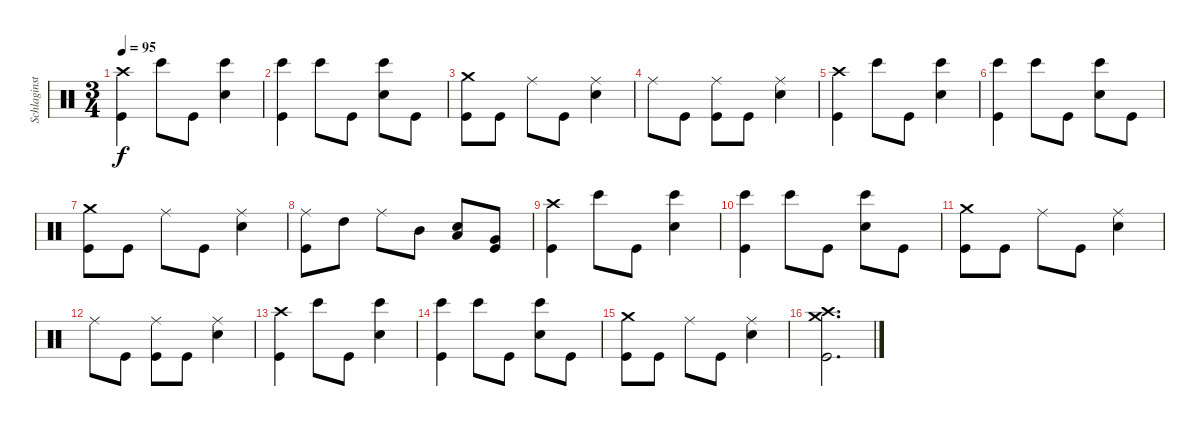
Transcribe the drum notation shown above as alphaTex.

\track ("Schlaginstrumente - Auswahl" "Schlaginst") {instrument percussion}
\staff {score}
\articulation defaults
\ts (3 4)
\tempo 95
\clef neutral
\ks c
("Crash high (hit)" "Kick (hit)").4{dy f} "Bongo High (hit)".8 "Kick (hit)".8 ("Snare (hit) 2" "Bongo High (hit)").4 |
("Bongo High (hit)" "Kick (hit)").4 "Bongo High (hit)".8 "Kick (hit)".8 ("Snare (hit) 2" "Bongo High (hit)").8 "Kick (hit)".8 |
("Crash medium (hit)" "Kick (hit)").8 "Kick (hit)".8 "Ride (middle)".8 "Kick (hit)".8 ("Snare (hit) 2" "Ride (middle)").4 |
"Ride (middle)".8 "Kick (hit)".8 ("Kick (hit)" "Ride (middle)").8 "Kick (hit)".8 ("Snare (hit) 2" "Ride (middle)").4 |
("Crash high (hit)" "Kick (hit)").4 "Bongo High (hit)".8 "Kick (hit)".8 ("Snare (hit) 2" "Bongo High (hit)").4 |
("Bongo High (hit)" "Kick (hit)").4 "Bongo High (hit)".8 "Kick (hit)".8 ("Snare (hit) 2" "Bongo High (hit)").8 "Kick (hit)".8 |
("Crash medium (hit)" "Kick (hit)").8 "Kick (hit)".8 "Ride (middle)".8 "Kick (hit)".8 ("Snare (hit) 2" "Ride (middle)").4 |
("Ride (middle)" "Kick (hit)").8 "High Tom (hit)".8 "Ride (middle)".8 "Mid Tom (hit)".8 ("Low Tom (hit)" "Snare (hit) 2").8 ("Kick (hit)" "Very Low Tom (hit)").8 |
("Crash high (hit)" "Kick (hit)").4 "Bongo High (hit)".8 "Kick (hit)".8 ("Snare (hit) 2" "Bongo High (hit)").4 |
("Bongo High (hit)" "Kick (hit)").4 "Bongo High (hit)".8 "Kick (hit)".8 ("Snare (hit) 2" "Bongo High (hit)").8 "Kick (hit)".8 |
("Crash medium (hit)" "Kick (hit)").8 "Kick (hit)".8 "Ride (middle)".8 "Kick (hit)".8 ("Snare (hit) 2" "Ride (middle)").4 |
"Ride (middle)".8 "Kick (hit)".8 ("Kick (hit)" "Ride (middle)").8 "Kick (hit)".8 ("Snare (hit) 2" "Ride (middle)").4 |
("Crash high (hit)" "Kick (hit)").4 "Bongo High (hit)".8 "Kick (hit)".8 ("Snare (hit) 2" "Bongo High (hit)").4 |
("Bongo High (hit)" "Kick (hit)").4 "Bongo High (hit)".8 "Kick (hit)".8 ("Snare (hit) 2" "Bongo High (hit)").8 "Kick (hit)".8 |
("Crash medium (hit)" "Kick (hit)").8 "Kick (hit)".8 "Ride (middle)".8 "Kick (hit)".8 ("Snare (hit) 2" "Ride (middle)").4 |
("Kick (hit)" "Crash high (hit)" "Crash medium (hit)").2{d}
